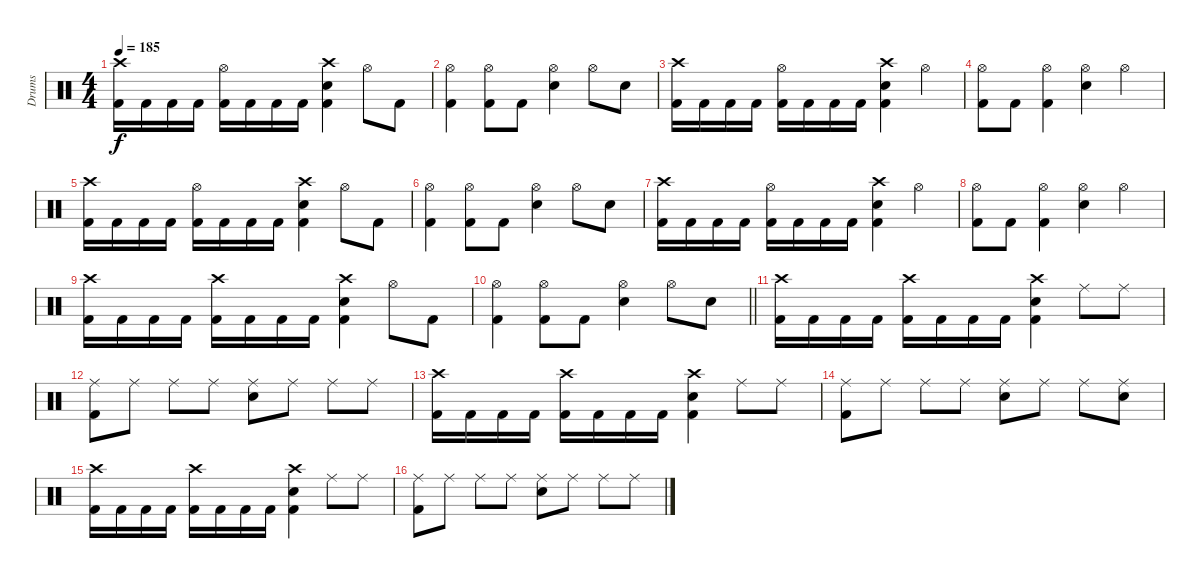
\track ("Drums" "Drums") {instrument percussion}
\staff {score}
\articulation defaults
\ts (4 4)
\tempo 185
\clef neutral
\ks c
("Crash high (hit)" "Kick (hit) 2").16{dy f} "Kick (hit) 2".16 "Kick (hit) 2".16 "Kick (hit) 2".16 ("Hi-Hat (open)" "Kick (hit) 2").16 "Kick (hit) 2".16 "Kick (hit) 2".16 "Kick (hit) 2".16 ("Crash high (hit)" "Electric Snare (hit)" "Kick (hit) 2").4 "Hi-Hat (open)".8 "Kick (hit) 2".8 |
("Hi-Hat (open)" "Kick (hit) 2").4 ("Hi-Hat (open)" "Kick (hit) 2").8 "Kick (hit) 2".8 ("Hi-Hat (open)" "Electric Snare (hit)").4 "Hi-Hat (open)".8 "Electric Snare (hit)".8 |
("Crash high (hit)" "Kick (hit) 2").16 "Kick (hit) 2".16 "Kick (hit) 2".16 "Kick (hit) 2".16 ("Hi-Hat (open)" "Kick (hit) 2").16 "Kick (hit) 2".16 "Kick (hit) 2".16 "Kick (hit) 2".16 ("Crash high (hit)" "Electric Snare (hit)" "Kick (hit) 2").4 "Hi-Hat (open)".4 |
("Hi-Hat (open)" "Kick (hit) 2").8 "Kick (hit) 2".8 ("Hi-Hat (open)" "Kick (hit) 2").4 ("Hi-Hat (open)" "Electric Snare (hit)").4 "Hi-Hat (open)".4 |
("Crash high (hit)" "Kick (hit) 2").16 "Kick (hit) 2".16 "Kick (hit) 2".16 "Kick (hit) 2".16 ("Hi-Hat (open)" "Kick (hit) 2").16 "Kick (hit) 2".16 "Kick (hit) 2".16 "Kick (hit) 2".16 ("Crash high (hit)" "Electric Snare (hit)" "Kick (hit) 2").4 "Hi-Hat (open)".8 "Kick (hit) 2".8 |
("Hi-Hat (open)" "Kick (hit) 2").4 ("Hi-Hat (open)" "Kick (hit) 2").8 "Kick (hit) 2".8 ("Hi-Hat (open)" "Electric Snare (hit)").4 "Hi-Hat (open)".8 "Electric Snare (hit)".8 |
("Crash high (hit)" "Kick (hit) 2").16 "Kick (hit) 2".16 "Kick (hit) 2".16 "Kick (hit) 2".16 ("Hi-Hat (open)" "Kick (hit) 2").16 "Kick (hit) 2".16 "Kick (hit) 2".16 "Kick (hit) 2".16 ("Crash high (hit)" "Electric Snare (hit)" "Kick (hit) 2").4 "Hi-Hat (open)".4 |
("Hi-Hat (open)" "Kick (hit) 2").8 "Kick (hit) 2".8 ("Hi-Hat (open)" "Kick (hit) 2").4 ("Hi-Hat (open)" "Electric Snare (hit)").4 "Hi-Hat (open)".4 |
("Crash high (hit)" "Kick (hit) 2").16 "Kick (hit) 2".16 "Kick (hit) 2".16 "Kick (hit) 2".16 ("Crash high (hit)" "Kick (hit) 2").16 "Kick (hit) 2".16 "Kick (hit) 2".16 "Kick (hit) 2".16 ("Crash high (hit)" "Electric Snare (hit)" "Kick (hit) 2").4 "Hi-Hat (open)".8 "Kick (hit) 2".8 |
\barLineRight lightlight
("Hi-Hat (open)" "Kick (hit) 2").4 ("Hi-Hat (open)" "Kick (hit) 2").8 "Kick (hit) 2".8 ("Hi-Hat (open)" "Electric Snare (hit)").4 "Hi-Hat (open)".8 "Electric Snare (hit)".8 |
\section ("" "")
("Crash high (hit)" "Kick (hit) 2").16 "Kick (hit) 2".16 "Kick (hit) 2".16 "Kick (hit) 2".16 ("Crash high (hit)" "Kick (hit) 2").16 "Kick (hit) 2".16 "Kick (hit) 2".16 "Kick (hit) 2".16 ("Crash high (hit)" "Electric Snare (hit)" "Kick (hit) 2").4 "Ride (middle)".8 "Ride (middle)".8 |
("Ride (middle)" "Kick (hit) 2").8 "Ride (middle)".8 "Ride (middle)".8 "Ride (middle)".8 ("Ride (middle)" "Electric Snare (hit)").8 "Ride (middle)".8 "Ride (middle)".8 "Ride (middle)".8 |
("Crash high (hit)" "Kick (hit) 2").16 "Kick (hit) 2".16 "Kick (hit) 2".16 "Kick (hit) 2".16 ("Crash high (hit)" "Kick (hit) 2").16 "Kick (hit) 2".16 "Kick (hit) 2".16 "Kick (hit) 2".16 ("Crash high (hit)" "Electric Snare (hit)" "Kick (hit) 2").4 "Ride (middle)".8 "Ride (middle)".8 |
("Ride (middle)" "Kick (hit) 2").8 "Ride (middle)".8 "Ride (middle)".8 "Ride (middle)".8 ("Ride (middle)" "Electric Snare (hit)").8 "Ride (middle)".8 "Ride (middle)".8 ("Ride (middle)" "Electric Snare (hit)").8 |
("Crash high (hit)" "Kick (hit) 2").16 "Kick (hit) 2".16 "Kick (hit) 2".16 "Kick (hit) 2".16 ("Crash high (hit)" "Kick (hit) 2").16 "Kick (hit) 2".16 "Kick (hit) 2".16 "Kick (hit) 2".16 ("Crash high (hit)" "Electric Snare (hit)" "Kick (hit) 2").4 "Ride (middle)".8 "Ride (middle)".8 |
("Ride (middle)" "Kick (hit) 2").8 "Ride (middle)".8 "Ride (middle)".8 "Ride (middle)".8 ("Ride (middle)" "Electric Snare (hit)").8 "Ride (middle)".8 "Ride (middle)".8 "Ride (middle)".8
